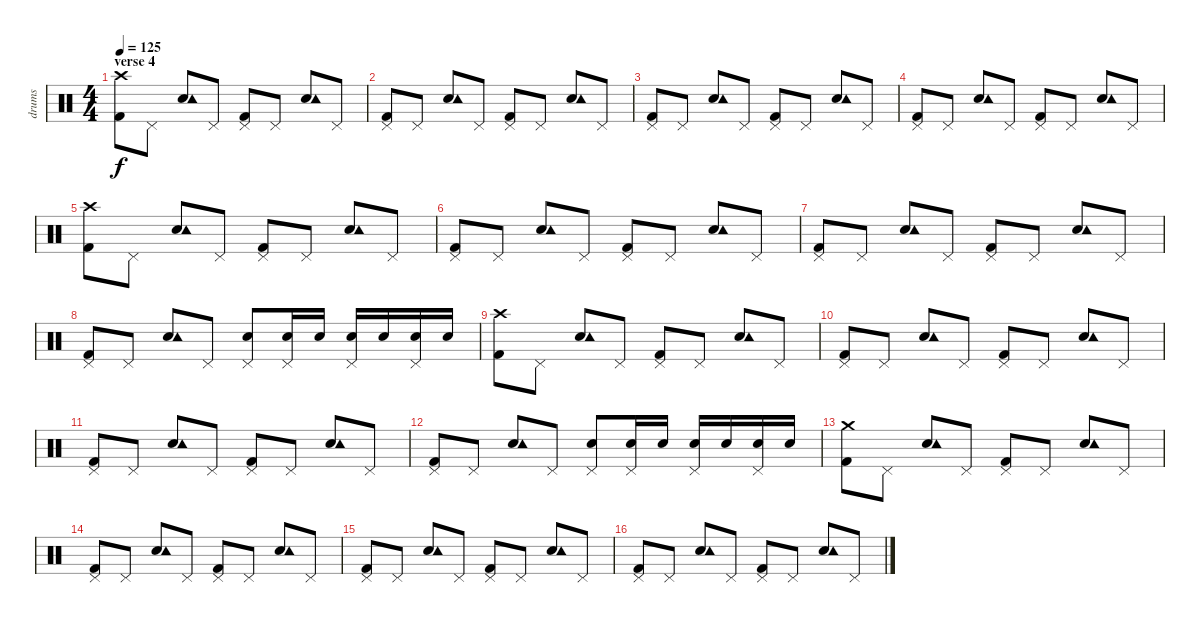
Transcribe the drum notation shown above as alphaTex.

\track ("drums" "drums") {instrument percussion}
\staff {score}
\articulation defaults
\ts (4 4)
\section ("" "verse 4")
\tempo 125
\clef neutral
\ks c
("Kick (hit) 2" "Crash high (hit)").8{dy f} "Pedal Hi-Hat (hit)".8 ("Electric Snare (hit)" "Tambourine (hit)").8 "Pedal Hi-Hat (hit)".8 ("Kick (hit) 2" "Pedal Hi-Hat (hit)").8 "Pedal Hi-Hat (hit)".8 ("Electric Snare (hit)" "Tambourine (hit)").8 "Pedal Hi-Hat (hit)".8 |
("Kick (hit) 2" "Pedal Hi-Hat (hit)").8 "Pedal Hi-Hat (hit)".8 ("Electric Snare (hit)" "Tambourine (hit)").8 "Pedal Hi-Hat (hit)".8 ("Kick (hit) 2" "Pedal Hi-Hat (hit)").8 "Pedal Hi-Hat (hit)".8 ("Electric Snare (hit)" "Tambourine (hit)").8 "Pedal Hi-Hat (hit)".8 |
("Kick (hit) 2" "Pedal Hi-Hat (hit)").8 "Pedal Hi-Hat (hit)".8 ("Electric Snare (hit)" "Tambourine (hit)").8 "Pedal Hi-Hat (hit)".8 ("Kick (hit) 2" "Pedal Hi-Hat (hit)").8 "Pedal Hi-Hat (hit)".8 ("Electric Snare (hit)" "Tambourine (hit)").8 "Pedal Hi-Hat (hit)".8 |
("Kick (hit) 2" "Pedal Hi-Hat (hit)").8 "Pedal Hi-Hat (hit)".8 ("Electric Snare (hit)" "Tambourine (hit)").8 "Pedal Hi-Hat (hit)".8 ("Kick (hit) 2" "Pedal Hi-Hat (hit)").8 "Pedal Hi-Hat (hit)".8 ("Electric Snare (hit)" "Tambourine (hit)").8 "Pedal Hi-Hat (hit)".8 |
("Kick (hit) 2" "Crash high (hit)").8 "Pedal Hi-Hat (hit)".8 ("Electric Snare (hit)" "Tambourine (hit)").8 "Pedal Hi-Hat (hit)".8 ("Kick (hit) 2" "Pedal Hi-Hat (hit)").8 "Pedal Hi-Hat (hit)".8 ("Electric Snare (hit)" "Tambourine (hit)").8 "Pedal Hi-Hat (hit)".8 |
("Kick (hit) 2" "Pedal Hi-Hat (hit)").8 "Pedal Hi-Hat (hit)".8 ("Electric Snare (hit)" "Tambourine (hit)").8 "Pedal Hi-Hat (hit)".8 ("Kick (hit) 2" "Pedal Hi-Hat (hit)").8 "Pedal Hi-Hat (hit)".8 ("Electric Snare (hit)" "Tambourine (hit)").8 "Pedal Hi-Hat (hit)".8 |
("Kick (hit) 2" "Pedal Hi-Hat (hit)").8 "Pedal Hi-Hat (hit)".8 ("Electric Snare (hit)" "Tambourine (hit)").8 "Pedal Hi-Hat (hit)".8 ("Kick (hit) 2" "Pedal Hi-Hat (hit)").8 "Pedal Hi-Hat (hit)".8 ("Electric Snare (hit)" "Tambourine (hit)").8 "Pedal Hi-Hat (hit)".8 |
("Kick (hit) 2" "Pedal Hi-Hat (hit)").8 "Pedal Hi-Hat (hit)".8 ("Electric Snare (hit)" "Tambourine (hit)").8 "Pedal Hi-Hat (hit)".8 ("Electric Snare (hit)" "Pedal Hi-Hat (hit)").8 ("Electric Snare (hit)" "Pedal Hi-Hat (hit)").16 "Electric Snare (hit)".16 ("Electric Snare (hit)" "Pedal Hi-Hat (hit)").16 "Electric Snare (hit)".16 ("Electric Snare (hit)" "Pedal Hi-Hat (hit)").16 "Electric Snare (hit)".16 |
("Kick (hit) 2" "Crash high (hit)").8 "Pedal Hi-Hat (hit)".8 ("Electric Snare (hit)" "Tambourine (hit)").8 "Pedal Hi-Hat (hit)".8 ("Kick (hit) 2" "Pedal Hi-Hat (hit)").8 "Pedal Hi-Hat (hit)".8 ("Electric Snare (hit)" "Tambourine (hit)").8 "Pedal Hi-Hat (hit)".8 |
("Kick (hit) 2" "Pedal Hi-Hat (hit)").8 "Pedal Hi-Hat (hit)".8 ("Electric Snare (hit)" "Tambourine (hit)").8 "Pedal Hi-Hat (hit)".8 ("Kick (hit) 2" "Pedal Hi-Hat (hit)").8 "Pedal Hi-Hat (hit)".8 ("Electric Snare (hit)" "Tambourine (hit)").8 "Pedal Hi-Hat (hit)".8 |
("Kick (hit) 2" "Pedal Hi-Hat (hit)").8 "Pedal Hi-Hat (hit)".8 ("Electric Snare (hit)" "Tambourine (hit)").8 "Pedal Hi-Hat (hit)".8 ("Kick (hit) 2" "Pedal Hi-Hat (hit)").8 "Pedal Hi-Hat (hit)".8 ("Electric Snare (hit)" "Tambourine (hit)").8 "Pedal Hi-Hat (hit)".8 |
("Kick (hit) 2" "Pedal Hi-Hat (hit)").8 "Pedal Hi-Hat (hit)".8 ("Electric Snare (hit)" "Tambourine (hit)").8 "Pedal Hi-Hat (hit)".8 ("Electric Snare (hit)" "Pedal Hi-Hat (hit)").8 ("Electric Snare (hit)" "Pedal Hi-Hat (hit)").16 "Electric Snare (hit)".16 ("Electric Snare (hit)" "Pedal Hi-Hat (hit)").16 "Electric Snare (hit)".16 ("Electric Snare (hit)" "Pedal Hi-Hat (hit)").16 "Electric Snare (hit)".16 |
("Kick (hit) 2" "Crash medium (hit)").8 "Pedal Hi-Hat (hit)".8 ("Electric Snare (hit)" "Tambourine (hit)").8 "Pedal Hi-Hat (hit)".8 ("Kick (hit) 2" "Pedal Hi-Hat (hit)").8 "Pedal Hi-Hat (hit)".8 ("Electric Snare (hit)" "Tambourine (hit)").8 "Pedal Hi-Hat (hit)".8 |
("Kick (hit) 2" "Pedal Hi-Hat (hit)").8 "Pedal Hi-Hat (hit)".8 ("Electric Snare (hit)" "Tambourine (hit)").8 "Pedal Hi-Hat (hit)".8 ("Kick (hit) 2" "Pedal Hi-Hat (hit)").8 "Pedal Hi-Hat (hit)".8 ("Electric Snare (hit)" "Tambourine (hit)").8 "Pedal Hi-Hat (hit)".8 |
("Kick (hit) 2" "Pedal Hi-Hat (hit)").8 "Pedal Hi-Hat (hit)".8 ("Electric Snare (hit)" "Tambourine (hit)").8 "Pedal Hi-Hat (hit)".8 ("Kick (hit) 2" "Pedal Hi-Hat (hit)").8 "Pedal Hi-Hat (hit)".8 ("Electric Snare (hit)" "Tambourine (hit)").8 "Pedal Hi-Hat (hit)".8 |
("Kick (hit) 2" "Pedal Hi-Hat (hit)").8 "Pedal Hi-Hat (hit)".8 ("Electric Snare (hit)" "Tambourine (hit)").8 "Pedal Hi-Hat (hit)".8 ("Kick (hit) 2" "Pedal Hi-Hat (hit)").8 "Pedal Hi-Hat (hit)".8 ("Electric Snare (hit)" "Tambourine (hit)").8 "Pedal Hi-Hat (hit)".8
